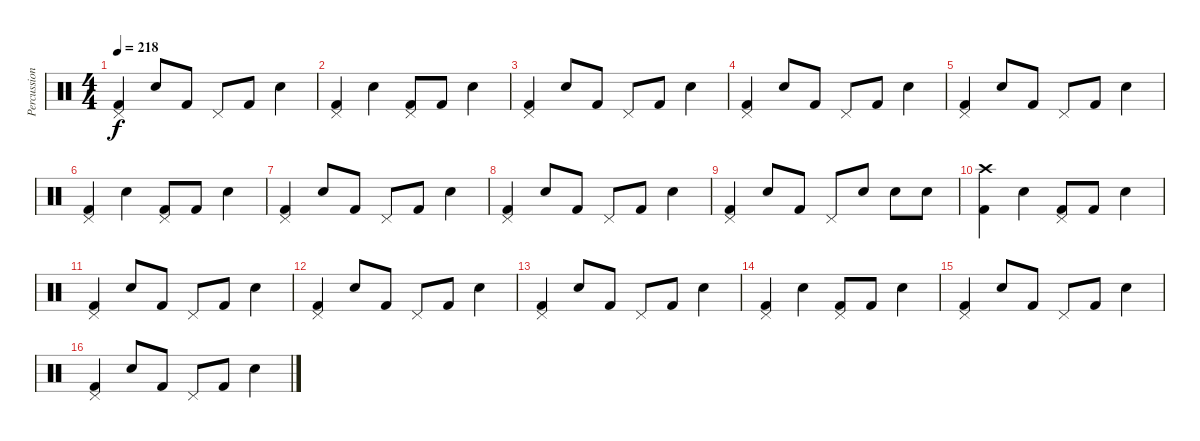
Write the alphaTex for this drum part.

\track ("Percussion" "Percussion") {instrument percussion}
\staff {score}
\articulation defaults
\ts (4 4)
\tempo 218
\clef neutral
\ks c
("Kick (hit) 2" "Pedal Hi-Hat (hit)").4{dy f} "Snare (hit) 2".8 "Kick (hit) 2".8 "Pedal Hi-Hat (hit)".8 "Kick (hit) 2".8 "Snare (hit) 2".4 |
("Kick (hit) 2" "Pedal Hi-Hat (hit)").4 "Snare (hit) 2".4 ("Kick (hit) 2" "Pedal Hi-Hat (hit)").8 "Kick (hit) 2".8 "Snare (hit) 2".4 |
("Kick (hit) 2" "Pedal Hi-Hat (hit)").4 "Snare (hit) 2".8 "Kick (hit) 2".8 "Pedal Hi-Hat (hit)".8 "Kick (hit) 2".8 "Snare (hit) 2".4 |
("Kick (hit) 2" "Pedal Hi-Hat (hit)").4 "Snare (hit) 2".8 "Kick (hit) 2".8 "Pedal Hi-Hat (hit)".8 "Kick (hit) 2".8 "Snare (hit) 2".4 |
("Kick (hit) 2" "Pedal Hi-Hat (hit)").4 "Snare (hit) 2".8 "Kick (hit) 2".8 "Pedal Hi-Hat (hit)".8 "Kick (hit) 2".8 "Snare (hit) 2".4 |
("Kick (hit) 2" "Pedal Hi-Hat (hit)").4 "Snare (hit) 2".4 ("Kick (hit) 2" "Pedal Hi-Hat (hit)").8 "Kick (hit) 2".8 "Snare (hit) 2".4 |
("Kick (hit) 2" "Pedal Hi-Hat (hit)").4 "Snare (hit) 2".8 "Kick (hit) 2".8 "Pedal Hi-Hat (hit)".8 "Kick (hit) 2".8 "Snare (hit) 2".4 |
("Kick (hit) 2" "Pedal Hi-Hat (hit)").4 "Snare (hit) 2".8 "Kick (hit) 2".8 "Pedal Hi-Hat (hit)".8 "Kick (hit) 2".8 "Snare (hit) 2".4 |
("Kick (hit) 2" "Pedal Hi-Hat (hit)").4 "Snare (hit) 2".8 "Kick (hit) 2".8 "Pedal Hi-Hat (hit)".8 "Snare (hit) 2".8 "Snare (hit) 2".8 "Snare (hit) 2".8 |
("Kick (hit) 2" "Crash high (hit)").4 "Snare (hit) 2".4 ("Kick (hit) 2" "Pedal Hi-Hat (hit)").8 "Kick (hit) 2".8 "Snare (hit) 2".4 |
("Kick (hit) 2" "Pedal Hi-Hat (hit)").4 "Snare (hit) 2".8 "Kick (hit) 2".8 "Pedal Hi-Hat (hit)".8 "Kick (hit) 2".8 "Snare (hit) 2".4 |
("Kick (hit) 2" "Pedal Hi-Hat (hit)").4 "Snare (hit) 2".8 "Kick (hit) 2".8 "Pedal Hi-Hat (hit)".8 "Kick (hit) 2".8 "Snare (hit) 2".4 |
("Kick (hit) 2" "Pedal Hi-Hat (hit)").4 "Snare (hit) 2".8 "Kick (hit) 2".8 "Pedal Hi-Hat (hit)".8 "Kick (hit) 2".8 "Snare (hit) 2".4 |
("Kick (hit) 2" "Pedal Hi-Hat (hit)").4 "Snare (hit) 2".4 ("Kick (hit) 2" "Pedal Hi-Hat (hit)").8 "Kick (hit) 2".8 "Snare (hit) 2".4 |
("Kick (hit) 2" "Pedal Hi-Hat (hit)").4 "Snare (hit) 2".8 "Kick (hit) 2".8 "Pedal Hi-Hat (hit)".8 "Kick (hit) 2".8 "Snare (hit) 2".4 |
("Kick (hit) 2" "Pedal Hi-Hat (hit)").4 "Snare (hit) 2".8 "Kick (hit) 2".8 "Pedal Hi-Hat (hit)".8 "Kick (hit) 2".8 "Snare (hit) 2".4
